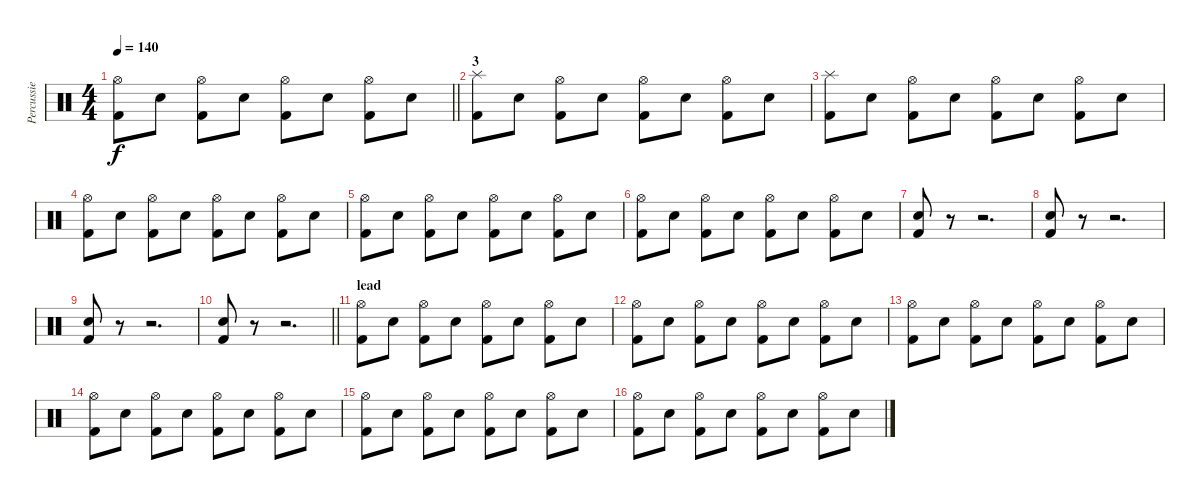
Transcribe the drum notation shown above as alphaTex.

\track ("Percussie" "Percussie") {instrument percussion}
\staff {score}
\articulation defaults
\ts (4 4)
\tempo 140
\clef neutral
\barLineRight lightlight
\ks c
("Hi-Hat (open)" "Kick (hit) 2").8{dy f} "Snare (hit) 2".8 ("Hi-Hat (open)" "Kick (hit) 2").8 "Snare (hit) 2".8 ("Hi-Hat (open)" "Kick (hit) 2").8 "Snare (hit) 2".8 ("Hi-Hat (open)" "Kick (hit) 2").8 "Snare (hit) 2".8 |
\section ("" "3")
("Splash (hit)" "Kick (hit) 2").8 "Snare (hit) 2".8 ("Hi-Hat (open)" "Kick (hit) 2").8 "Snare (hit) 2".8 ("Hi-Hat (open)" "Kick (hit) 2").8 "Snare (hit) 2".8 ("Hi-Hat (open)" "Kick (hit) 2").8 "Snare (hit) 2".8 |
("Splash (hit)" "Kick (hit) 2").8 "Snare (hit) 2".8 ("Hi-Hat (open)" "Kick (hit) 2").8 "Snare (hit) 2".8 ("Hi-Hat (open)" "Kick (hit) 2").8 "Snare (hit) 2".8 ("Hi-Hat (open)" "Kick (hit) 2").8 "Snare (hit) 2".8 |
("Hi-Hat (open)" "Kick (hit) 2").8 "Snare (hit) 2".8 ("Hi-Hat (open)" "Kick (hit) 2").8 "Snare (hit) 2".8 ("Hi-Hat (open)" "Kick (hit) 2").8 "Snare (hit) 2".8 ("Hi-Hat (open)" "Kick (hit) 2").8 "Snare (hit) 2".8 |
("Hi-Hat (open)" "Kick (hit) 2").8 "Snare (hit) 2".8 ("Hi-Hat (open)" "Kick (hit) 2").8 "Snare (hit) 2".8 ("Hi-Hat (open)" "Kick (hit) 2").8 "Snare (hit) 2".8 ("Hi-Hat (open)" "Kick (hit) 2").8 "Snare (hit) 2".8 |
("Hi-Hat (open)" "Kick (hit) 2").8 "Snare (hit) 2".8 ("Hi-Hat (open)" "Kick (hit) 2").8 "Snare (hit) 2".8 ("Hi-Hat (open)" "Kick (hit) 2").8 "Snare (hit) 2".8 ("Hi-Hat (open)" "Kick (hit) 2").8 "Snare (hit) 2".8 |
("Snare (hit) 2" "Kick (hit) 2").8 r.8 r.2{d} |
("Snare (hit) 2" "Kick (hit) 2").8 r.8 r.2{d} |
("Snare (hit) 2" "Kick (hit) 2").8 r.8 r.2{d} |
\barLineRight lightlight
("Snare (hit) 2" "Kick (hit) 2").8 r.8 r.2{d} |
\section ("" "lead")
("Hi-Hat (open)" "Kick (hit) 2").8 "Snare (hit) 2".8 ("Hi-Hat (open)" "Kick (hit) 2").8 "Snare (hit) 2".8 ("Hi-Hat (open)" "Kick (hit) 2").8 "Snare (hit) 2".8 ("Hi-Hat (open)" "Kick (hit) 2").8 "Snare (hit) 2".8 |
("Hi-Hat (open)" "Kick (hit) 2").8 "Snare (hit) 2".8 ("Hi-Hat (open)" "Kick (hit) 2").8 "Snare (hit) 2".8 ("Hi-Hat (open)" "Kick (hit) 2").8 "Snare (hit) 2".8 ("Hi-Hat (open)" "Kick (hit) 2").8 "Snare (hit) 2".8 |
("Hi-Hat (open)" "Kick (hit) 2").8 "Snare (hit) 2".8 ("Hi-Hat (open)" "Kick (hit) 2").8 "Snare (hit) 2".8 ("Hi-Hat (open)" "Kick (hit) 2").8 "Snare (hit) 2".8 ("Hi-Hat (open)" "Kick (hit) 2").8 "Snare (hit) 2".8 |
("Hi-Hat (open)" "Kick (hit) 2").8 "Snare (hit) 2".8 ("Hi-Hat (open)" "Kick (hit) 2").8 "Snare (hit) 2".8 ("Hi-Hat (open)" "Kick (hit) 2").8 "Snare (hit) 2".8 ("Hi-Hat (open)" "Kick (hit) 2").8 "Snare (hit) 2".8 |
("Hi-Hat (open)" "Kick (hit) 2").8 "Snare (hit) 2".8 ("Hi-Hat (open)" "Kick (hit) 2").8 "Snare (hit) 2".8 ("Hi-Hat (open)" "Kick (hit) 2").8 "Snare (hit) 2".8 ("Hi-Hat (open)" "Kick (hit) 2").8 "Snare (hit) 2".8 |
("Hi-Hat (open)" "Kick (hit) 2").8 "Snare (hit) 2".8 ("Hi-Hat (open)" "Kick (hit) 2").8 "Snare (hit) 2".8 ("Hi-Hat (open)" "Kick (hit) 2").8 "Snare (hit) 2".8 ("Hi-Hat (open)" "Kick (hit) 2").8 "Snare (hit) 2".8
